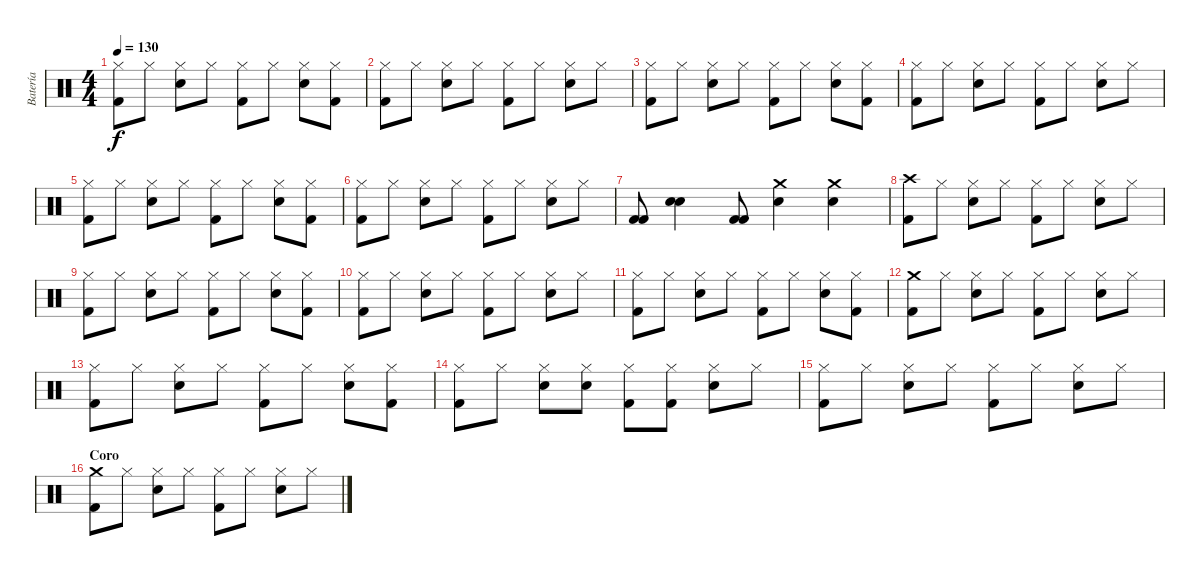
\track ("Batería" "Batería") {instrument percussion}
\staff {score}
\articulation defaults
\ts (4 4)
\tempo 130
\clef neutral
\ks c
("Hi-Hat (closed)" "Kick (hit) 2").8{dy f} "Hi-Hat (closed)".8 ("Hi-Hat (closed)" "Snare (hit) 2").8 "Hi-Hat (closed)".8 ("Hi-Hat (closed)" "Kick (hit) 2").8 "Hi-Hat (closed)".8 ("Hi-Hat (closed)" "Snare (hit) 2").8 ("Hi-Hat (closed)" "Kick (hit) 2").8 |
("Hi-Hat (closed)" "Kick (hit) 2").8 "Hi-Hat (closed)".8 ("Hi-Hat (closed)" "Snare (hit) 2").8 "Hi-Hat (closed)".8 ("Hi-Hat (closed)" "Kick (hit) 2").8 "Hi-Hat (closed)".8 ("Hi-Hat (closed)" "Snare (hit) 2").8 "Hi-Hat (closed)".8 |
("Hi-Hat (closed)" "Kick (hit) 2").8 "Hi-Hat (closed)".8 ("Hi-Hat (closed)" "Snare (hit) 2").8 "Hi-Hat (closed)".8 ("Hi-Hat (closed)" "Kick (hit) 2").8 "Hi-Hat (closed)".8 ("Hi-Hat (closed)" "Snare (hit) 2").8 ("Hi-Hat (closed)" "Kick (hit) 2").8 |
("Hi-Hat (closed)" "Kick (hit) 2").8 "Hi-Hat (closed)".8 ("Hi-Hat (closed)" "Snare (hit) 2").8 "Hi-Hat (closed)".8 ("Hi-Hat (closed)" "Kick (hit) 2").8 "Hi-Hat (closed)".8 ("Hi-Hat (closed)" "Snare (hit) 2").8 "Hi-Hat (closed)".8 |
("Hi-Hat (closed)" "Kick (hit) 2").8 "Hi-Hat (closed)".8 ("Hi-Hat (closed)" "Snare (hit) 2").8 "Hi-Hat (closed)".8 ("Hi-Hat (closed)" "Kick (hit) 2").8 "Hi-Hat (closed)".8 ("Hi-Hat (closed)" "Snare (hit) 2").8 ("Hi-Hat (closed)" "Kick (hit) 2").8 |
("Hi-Hat (closed)" "Kick (hit) 2").8 "Hi-Hat (closed)".8 ("Hi-Hat (closed)" "Snare (hit) 2").8 "Hi-Hat (closed)".8 ("Hi-Hat (closed)" "Kick (hit) 2").8 "Hi-Hat (closed)".8 ("Hi-Hat (closed)" "Snare (hit) 2").8 "Hi-Hat (closed)".8 |
("Kick (hit) 2" "Kick (hit) 2").8 ("Snare (hit) 2" "Snare (hit) 2").4 ("Kick (hit) 2" "Kick (hit) 2").8 ("Crash medium (hit)" "Snare (hit) 2").4 ("Crash medium (hit)" "Snare (hit) 2").4 |
("Crash high (hit)" "Kick (hit) 2").8 "Hi-Hat (closed)".8 ("Hi-Hat (closed)" "Snare (hit) 2").8 "Hi-Hat (closed)".8 ("Hi-Hat (closed)" "Kick (hit) 2").8 "Hi-Hat (closed)".8 ("Hi-Hat (closed)" "Snare (hit) 2").8 "Hi-Hat (closed)".8 |
("Hi-Hat (closed)" "Kick (hit) 2").8 "Hi-Hat (closed)".8 ("Hi-Hat (closed)" "Snare (hit) 2").8 "Hi-Hat (closed)".8 ("Hi-Hat (closed)" "Kick (hit) 2").8 "Hi-Hat (closed)".8 ("Hi-Hat (closed)" "Snare (hit) 2").8 ("Hi-Hat (closed)" "Kick (hit) 2").8 |
("Hi-Hat (closed)" "Kick (hit) 2").8 "Hi-Hat (closed)".8 ("Hi-Hat (closed)" "Snare (hit) 2").8 "Hi-Hat (closed)".8 ("Hi-Hat (closed)" "Kick (hit) 2").8 "Hi-Hat (closed)".8 ("Hi-Hat (closed)" "Snare (hit) 2").8 "Hi-Hat (closed)".8 |
("Hi-Hat (closed)" "Kick (hit) 2").8 "Hi-Hat (closed)".8 ("Hi-Hat (closed)" "Snare (hit) 2").8 "Hi-Hat (closed)".8 ("Hi-Hat (closed)" "Kick (hit) 2").8 "Hi-Hat (closed)".8 ("Hi-Hat (closed)" "Snare (hit) 2").8 ("Hi-Hat (closed)" "Kick (hit) 2").8 |
("Crash medium (hit)" "Kick (hit) 2").8 "Hi-Hat (closed)".8 ("Hi-Hat (closed)" "Snare (hit) 2").8 "Hi-Hat (closed)".8 ("Hi-Hat (closed)" "Kick (hit) 2").8 "Hi-Hat (closed)".8 ("Hi-Hat (closed)" "Snare (hit) 2").8 "Hi-Hat (closed)".8 |
("Hi-Hat (closed)" "Kick (hit) 2").8 "Hi-Hat (closed)".8 ("Hi-Hat (closed)" "Snare (hit) 2").8 "Hi-Hat (closed)".8 ("Hi-Hat (closed)" "Kick (hit) 2").8 "Hi-Hat (closed)".8 ("Hi-Hat (closed)" "Snare (hit) 2").8 ("Hi-Hat (closed)" "Kick (hit) 2").8 |
("Hi-Hat (closed)" "Kick (hit) 2").8 "Hi-Hat (closed)".8 ("Hi-Hat (closed)" "Snare (hit) 2").8 ("Hi-Hat (closed)" "Snare (hit) 2").8 ("Hi-Hat (closed)" "Kick (hit) 2").8 ("Hi-Hat (closed)" "Kick (hit) 2").8 ("Hi-Hat (closed)" "Snare (hit) 2").8 "Hi-Hat (closed)".8 |
("Hi-Hat (closed)" "Kick (hit) 2").8 "Hi-Hat (closed)".8 ("Hi-Hat (closed)" "Snare (hit) 2").8 "Hi-Hat (closed)".8 ("Hi-Hat (closed)" "Kick (hit) 2").8 "Hi-Hat (closed)".8 ("Hi-Hat (closed)" "Snare (hit) 2").8 "Hi-Hat (closed)".8 |
\section ("" "Coro")
("Crash medium (hit)" "Kick (hit) 2").8 "Hi-Hat (closed)".8 ("Hi-Hat (closed)" "Snare (hit) 2").8 "Hi-Hat (closed)".8 ("Hi-Hat (closed)" "Kick (hit) 2").8 "Hi-Hat (closed)".8 ("Hi-Hat (closed)" "Snare (hit) 2").8 "Hi-Hat (closed)".8
